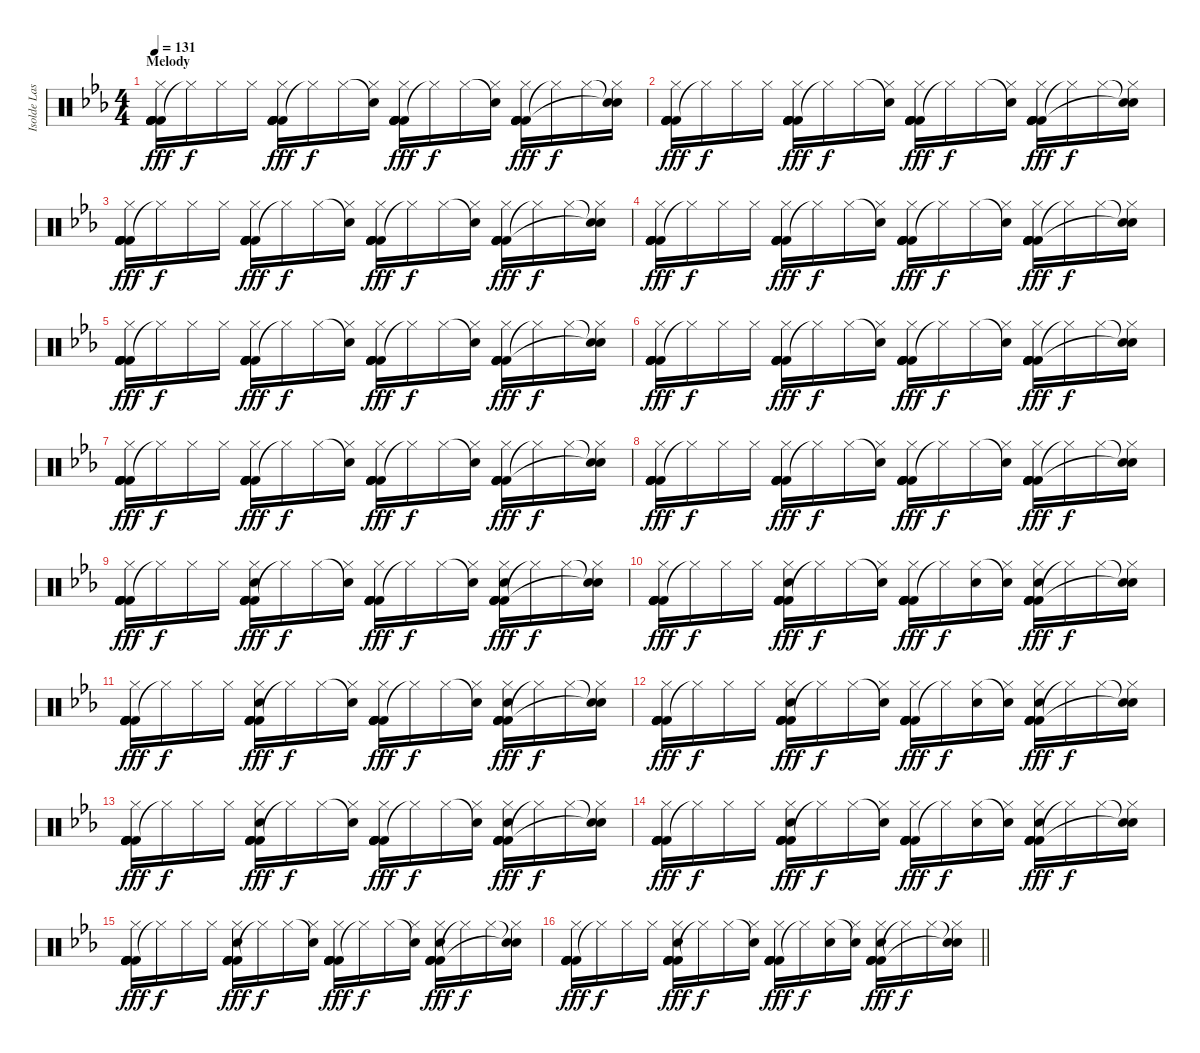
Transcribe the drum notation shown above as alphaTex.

\track ("Isolde Lasoen (Percussion)" "Isolde Las") {instrument percussion}
\staff {score}
\articulation defaults
\ts (4 4)
\section ("" "Melody")
\tempo 131
\clef neutral
\ks cminor
("Kick (hit) 2" "Kick (hit) 2" "Kick (hit) 2" "Kick (hit) 2" "Hi-Hat (closed)" "Kick (hit) 2").16{dy fff} "Hi-Hat (closed)"{t}.16{dy f} "Hi-Hat (closed)".16 "Hi-Hat (closed)".16 ("Kick (hit) 2" "Kick (hit) 2" "Kick (hit) 2" "Kick (hit) 2" "Hi-Hat (closed)" "Kick (hit) 2").16{dy fff} "Hi-Hat (closed)"{t}.16{dy f} "Hi-Hat (closed)".16 ("Snare (hit)"{t} "Hi-Hat (closed)").16 ("Kick (hit) 2" "Kick (hit) 2" "Kick (hit) 2" "Kick (hit) 2" "Hi-Hat (closed)" "Kick (hit) 2").16{dy fff} "Hi-Hat (closed)"{t}.16{dy f} "Hi-Hat (closed)".16 ("Snare (hit)"{t} "Hi-Hat (closed)").16 ("Kick (hit) 2" "Kick (hit) 2" "Kick (hit) 2" "Kick (hit) 2" "Hi-Hat (closed)" "Kick (hit) 2").16{dy fff} "Hi-Hat (closed)"{t}.16{dy f} "Hi-Hat (closed)".16 ("Snare (hit)"{t} "Hi-Hat (closed)" "Snare (hit)"{t}).16 |
("Kick (hit) 2" "Kick (hit) 2" "Kick (hit) 2" "Kick (hit) 2" "Hi-Hat (closed)" "Kick (hit) 2").16{dy fff} "Hi-Hat (closed)"{t}.16{dy f} "Hi-Hat (closed)".16 "Hi-Hat (closed)".16 ("Kick (hit) 2" "Kick (hit) 2" "Kick (hit) 2" "Kick (hit) 2" "Hi-Hat (closed)" "Kick (hit) 2").16{dy fff} "Hi-Hat (closed)"{t}.16{dy f} "Hi-Hat (closed)".16 ("Snare (hit)"{t} "Hi-Hat (closed)").16 ("Kick (hit) 2" "Kick (hit) 2" "Kick (hit) 2" "Kick (hit) 2" "Hi-Hat (closed)" "Kick (hit) 2").16{dy fff} "Hi-Hat (closed)"{t}.16{dy f} "Hi-Hat (closed)".16 ("Snare (hit)"{t} "Hi-Hat (closed)").16 ("Kick (hit) 2" "Kick (hit) 2" "Kick (hit) 2" "Kick (hit) 2" "Hi-Hat (closed)" "Kick (hit) 2").16{dy fff} "Hi-Hat (closed)"{t}.16{dy f} "Hi-Hat (closed)".16 ("Snare (hit)"{t} "Hi-Hat (closed)" "Snare (hit)"{t}).16 |
("Kick (hit) 2" "Kick (hit) 2" "Kick (hit) 2" "Kick (hit) 2" "Hi-Hat (closed)" "Kick (hit) 2").16{dy fff} "Hi-Hat (closed)"{t}.16{dy f} "Hi-Hat (closed)".16 "Hi-Hat (closed)".16 ("Kick (hit) 2" "Kick (hit) 2" "Kick (hit) 2" "Kick (hit) 2" "Hi-Hat (closed)" "Kick (hit) 2").16{dy fff} "Hi-Hat (closed)"{t}.16{dy f} "Hi-Hat (closed)".16 ("Snare (hit)"{t} "Hi-Hat (closed)").16 ("Kick (hit) 2" "Kick (hit) 2" "Kick (hit) 2" "Kick (hit) 2" "Hi-Hat (closed)" "Kick (hit) 2").16{dy fff} "Hi-Hat (closed)"{t}.16{dy f} "Hi-Hat (closed)".16 ("Snare (hit)"{t} "Hi-Hat (closed)").16 ("Kick (hit) 2" "Kick (hit) 2" "Kick (hit) 2" "Kick (hit) 2" "Hi-Hat (closed)" "Kick (hit) 2").16{dy fff} "Hi-Hat (closed)"{t}.16{dy f} "Hi-Hat (closed)".16 ("Snare (hit)"{t} "Hi-Hat (closed)" "Snare (hit)"{t}).16 |
("Kick (hit) 2" "Kick (hit) 2" "Kick (hit) 2" "Kick (hit) 2" "Hi-Hat (closed)" "Kick (hit) 2").16{dy fff} "Hi-Hat (closed)"{t}.16{dy f} "Hi-Hat (closed)".16 "Hi-Hat (closed)".16 ("Kick (hit) 2" "Kick (hit) 2" "Kick (hit) 2" "Kick (hit) 2" "Hi-Hat (closed)" "Kick (hit) 2").16{dy fff} "Hi-Hat (closed)"{t}.16{dy f} "Hi-Hat (closed)".16 ("Snare (hit)"{t} "Hi-Hat (closed)").16 ("Kick (hit) 2" "Kick (hit) 2" "Kick (hit) 2" "Kick (hit) 2" "Hi-Hat (closed)" "Kick (hit) 2").16{dy fff} "Hi-Hat (closed)"{t}.16{dy f} "Hi-Hat (closed)".16 ("Snare (hit)"{t} "Hi-Hat (closed)").16 ("Kick (hit) 2" "Kick (hit) 2" "Kick (hit) 2" "Kick (hit) 2" "Hi-Hat (closed)" "Kick (hit) 2").16{dy fff} "Hi-Hat (closed)"{t}.16{dy f} "Hi-Hat (closed)".16 ("Snare (hit)"{t} "Hi-Hat (closed)" "Snare (hit)"{t}).16 |
("Kick (hit) 2" "Kick (hit) 2" "Kick (hit) 2" "Kick (hit) 2" "Hi-Hat (closed)" "Kick (hit) 2").16{dy fff} "Hi-Hat (closed)"{t}.16{dy f} "Hi-Hat (closed)".16 "Hi-Hat (closed)".16 ("Kick (hit) 2" "Kick (hit) 2" "Kick (hit) 2" "Kick (hit) 2" "Hi-Hat (closed)" "Kick (hit) 2").16{dy fff} "Hi-Hat (closed)"{t}.16{dy f} "Hi-Hat (closed)".16 ("Snare (hit)"{t} "Hi-Hat (closed)").16 ("Kick (hit) 2" "Kick (hit) 2" "Kick (hit) 2" "Kick (hit) 2" "Hi-Hat (closed)" "Kick (hit) 2").16{dy fff} "Hi-Hat (closed)"{t}.16{dy f} "Hi-Hat (closed)".16 ("Snare (hit)"{t} "Hi-Hat (closed)").16 ("Kick (hit) 2" "Kick (hit) 2" "Kick (hit) 2" "Kick (hit) 2" "Hi-Hat (closed)" "Kick (hit) 2").16{dy fff} "Hi-Hat (closed)"{t}.16{dy f} "Hi-Hat (closed)".16 ("Snare (hit)"{t} "Hi-Hat (closed)" "Snare (hit)"{t}).16 |
("Kick (hit) 2" "Kick (hit) 2" "Kick (hit) 2" "Kick (hit) 2" "Hi-Hat (closed)" "Kick (hit) 2").16{dy fff} "Hi-Hat (closed)"{t}.16{dy f} "Hi-Hat (closed)".16 "Hi-Hat (closed)".16 ("Kick (hit) 2" "Kick (hit) 2" "Kick (hit) 2" "Kick (hit) 2" "Hi-Hat (closed)" "Kick (hit) 2").16{dy fff} "Hi-Hat (closed)"{t}.16{dy f} "Hi-Hat (closed)".16 ("Snare (hit)"{t} "Hi-Hat (closed)").16 ("Kick (hit) 2" "Kick (hit) 2" "Kick (hit) 2" "Kick (hit) 2" "Hi-Hat (closed)" "Kick (hit) 2").16{dy fff} "Hi-Hat (closed)"{t}.16{dy f} "Hi-Hat (closed)".16 ("Snare (hit)"{t} "Hi-Hat (closed)").16 ("Kick (hit) 2" "Kick (hit) 2" "Kick (hit) 2" "Kick (hit) 2" "Hi-Hat (closed)" "Kick (hit) 2").16{dy fff} "Hi-Hat (closed)"{t}.16{dy f} "Hi-Hat (closed)".16 ("Snare (hit)"{t} "Hi-Hat (closed)" "Snare (hit)"{t}).16 |
("Kick (hit) 2" "Kick (hit) 2" "Kick (hit) 2" "Kick (hit) 2" "Hi-Hat (closed)" "Kick (hit) 2").16{dy fff} "Hi-Hat (closed)"{t}.16{dy f} "Hi-Hat (closed)".16 "Hi-Hat (closed)".16 ("Kick (hit) 2" "Kick (hit) 2" "Kick (hit) 2" "Kick (hit) 2" "Hi-Hat (closed)" "Kick (hit) 2").16{dy fff} "Hi-Hat (closed)"{t}.16{dy f} "Hi-Hat (closed)".16 ("Snare (hit)"{t} "Hi-Hat (closed)").16 ("Kick (hit) 2" "Kick (hit) 2" "Kick (hit) 2" "Kick (hit) 2" "Hi-Hat (closed)" "Kick (hit) 2").16{dy fff} "Hi-Hat (closed)"{t}.16{dy f} "Hi-Hat (closed)".16 ("Snare (hit)"{t} "Hi-Hat (closed)").16 ("Kick (hit) 2" "Kick (hit) 2" "Kick (hit) 2" "Kick (hit) 2" "Hi-Hat (closed)" "Kick (hit) 2").16{dy fff} "Hi-Hat (closed)"{t}.16{dy f} "Hi-Hat (closed)".16 ("Snare (hit)"{t} "Hi-Hat (closed)" "Snare (hit)"{t}).16 |
("Kick (hit) 2" "Kick (hit) 2" "Kick (hit) 2" "Kick (hit) 2" "Hi-Hat (closed)" "Kick (hit) 2").16{dy fff} "Hi-Hat (closed)"{t}.16{dy f} "Hi-Hat (closed)".16 "Hi-Hat (closed)".16 ("Kick (hit) 2" "Kick (hit) 2" "Kick (hit) 2" "Kick (hit) 2" "Hi-Hat (closed)" "Kick (hit) 2").16{dy fff} "Hi-Hat (closed)"{t}.16{dy f} "Hi-Hat (closed)".16 ("Snare (hit)"{t} "Hi-Hat (closed)").16 ("Kick (hit) 2" "Kick (hit) 2" "Kick (hit) 2" "Kick (hit) 2" "Hi-Hat (closed)" "Kick (hit) 2").16{dy fff} "Hi-Hat (closed)"{t}.16{dy f} "Hi-Hat (closed)".16 ("Snare (hit)"{t} "Hi-Hat (closed)").16 ("Kick (hit) 2" "Kick (hit) 2" "Kick (hit) 2" "Kick (hit) 2" "Hi-Hat (closed)" "Kick (hit) 2").16{dy fff} "Hi-Hat (closed)"{t}.16{dy f} "Hi-Hat (closed)".16 ("Snare (hit)"{t} "Hi-Hat (closed)" "Snare (hit)"{t}).16 |
("Kick (hit) 2" "Kick (hit) 2" "Kick (hit) 2" "Kick (hit) 2" "Hi-Hat (closed)" "Kick (hit) 2").16{dy fff} "Hi-Hat (closed)"{t}.16{dy f} "Hi-Hat (closed)".16 "Hi-Hat (closed)".16 ("Kick (hit) 2" "Kick (hit) 2" "Kick (hit) 2" "Kick (hit) 2" "Hi-Hat (closed)" "Hand Clap (hit)").16{dy fff} "Hi-Hat (closed)"{t}.16{dy f} "Hi-Hat (closed)".16 ("Snare (hit)"{t} "Hi-Hat (closed)").16 ("Kick (hit) 2" "Kick (hit) 2" "Kick (hit) 2" "Kick (hit) 2" "Hi-Hat (closed)" "Kick (hit) 2").16{dy fff} "Hi-Hat (closed)"{t}.16{dy f} "Hi-Hat (closed)".16 ("Snare (hit)"{t} "Hi-Hat (closed)").16 ("Kick (hit) 2" "Kick (hit) 2" "Kick (hit) 2" "Kick (hit) 2" "Hi-Hat (closed)" "Hand Clap (hit)").16{dy fff} "Hi-Hat (closed)"{t}.16{dy f} "Hi-Hat (closed)".16 ("Snare (hit)"{t} "Hi-Hat (closed)" "Snare (hit)"{t}).16 |
("Kick (hit) 2" "Kick (hit) 2" "Kick (hit) 2" "Kick (hit) 2" "Hi-Hat (closed)" "Kick (hit) 2").16{dy fff} "Hi-Hat (closed)"{t}.16{dy f} "Hi-Hat (closed)".16 "Hi-Hat (closed)".16 ("Kick (hit) 2" "Kick (hit) 2" "Kick (hit) 2" "Kick (hit) 2" "Hi-Hat (closed)" "Hand Clap (hit)").16{dy fff} "Hi-Hat (closed)"{t}.16{dy f} "Hi-Hat (closed)".16 ("Snare (hit)"{t} "Hi-Hat (closed)").16 ("Kick (hit) 2" "Kick (hit) 2" "Kick (hit) 2" "Kick (hit) 2" "Hi-Hat (closed)" "Kick (hit) 2").16{dy fff} "Hi-Hat (closed)"{t}.16{dy f} ("Hi-Hat (closed)" "Hand Clap (hit)").16 ("Snare (hit)"{t} "Hi-Hat (closed)").16 ("Kick (hit) 2" "Kick (hit) 2" "Kick (hit) 2" "Kick (hit) 2" "Hi-Hat (closed)" "Hand Clap (hit)").16{dy fff} "Hi-Hat (closed)"{t}.16{dy f} "Hi-Hat (closed)".16 ("Snare (hit)"{t} "Hi-Hat (closed)" "Snare (hit)"{t}).16 |
("Kick (hit) 2" "Kick (hit) 2" "Kick (hit) 2" "Kick (hit) 2" "Hi-Hat (closed)" "Kick (hit) 2").16{dy fff} "Hi-Hat (closed)"{t}.16{dy f} "Hi-Hat (closed)".16 "Hi-Hat (closed)".16 ("Kick (hit) 2" "Kick (hit) 2" "Kick (hit) 2" "Kick (hit) 2" "Hi-Hat (closed)" "Hand Clap (hit)").16{dy fff} "Hi-Hat (closed)"{t}.16{dy f} "Hi-Hat (closed)".16 ("Snare (hit)"{t} "Hi-Hat (closed)").16 ("Kick (hit) 2" "Kick (hit) 2" "Kick (hit) 2" "Kick (hit) 2" "Hi-Hat (closed)" "Kick (hit) 2").16{dy fff} "Hi-Hat (closed)"{t}.16{dy f} "Hi-Hat (closed)".16 ("Snare (hit)"{t} "Hi-Hat (closed)").16 ("Kick (hit) 2" "Kick (hit) 2" "Kick (hit) 2" "Kick (hit) 2" "Hi-Hat (closed)" "Hand Clap (hit)").16{dy fff} "Hi-Hat (closed)"{t}.16{dy f} "Hi-Hat (closed)".16 ("Snare (hit)"{t} "Hi-Hat (closed)" "Snare (hit)"{t}).16 |
("Kick (hit) 2" "Kick (hit) 2" "Kick (hit) 2" "Kick (hit) 2" "Hi-Hat (closed)" "Kick (hit) 2").16{dy fff} "Hi-Hat (closed)"{t}.16{dy f} "Hi-Hat (closed)".16 "Hi-Hat (closed)".16 ("Kick (hit) 2" "Kick (hit) 2" "Kick (hit) 2" "Kick (hit) 2" "Hi-Hat (closed)" "Hand Clap (hit)").16{dy fff} "Hi-Hat (closed)"{t}.16{dy f} "Hi-Hat (closed)".16 ("Snare (hit)"{t} "Hi-Hat (closed)").16 ("Kick (hit) 2" "Kick (hit) 2" "Kick (hit) 2" "Kick (hit) 2" "Hi-Hat (closed)" "Kick (hit) 2").16{dy fff} "Hi-Hat (closed)"{t}.16{dy f} ("Hi-Hat (closed)" "Hand Clap (hit)").16 ("Snare (hit)"{t} "Hi-Hat (closed)").16 ("Kick (hit) 2" "Kick (hit) 2" "Kick (hit) 2" "Kick (hit) 2" "Hi-Hat (closed)" "Hand Clap (hit)").16{dy fff} "Hi-Hat (closed)"{t}.16{dy f} "Hi-Hat (closed)".16 ("Snare (hit)"{t} "Hi-Hat (closed)" "Snare (hit)"{t}).16 |
("Kick (hit) 2" "Kick (hit) 2" "Kick (hit) 2" "Kick (hit) 2" "Hi-Hat (closed)" "Kick (hit) 2").16{dy fff} "Hi-Hat (closed)"{t}.16{dy f} "Hi-Hat (closed)".16 "Hi-Hat (closed)".16 ("Kick (hit) 2" "Kick (hit) 2" "Kick (hit) 2" "Kick (hit) 2" "Hi-Hat (closed)" "Hand Clap (hit)").16{dy fff} "Hi-Hat (closed)"{t}.16{dy f} "Hi-Hat (closed)".16 ("Snare (hit)"{t} "Hi-Hat (closed)").16 ("Kick (hit) 2" "Kick (hit) 2" "Kick (hit) 2" "Kick (hit) 2" "Hi-Hat (closed)" "Kick (hit) 2").16{dy fff} "Hi-Hat (closed)"{t}.16{dy f} "Hi-Hat (closed)".16 ("Snare (hit)"{t} "Hi-Hat (closed)").16 ("Kick (hit) 2" "Kick (hit) 2" "Kick (hit) 2" "Kick (hit) 2" "Hi-Hat (closed)" "Hand Clap (hit)").16{dy fff} "Hi-Hat (closed)"{t}.16{dy f} "Hi-Hat (closed)".16 ("Snare (hit)"{t} "Hi-Hat (closed)" "Snare (hit)"{t}).16 |
("Kick (hit) 2" "Kick (hit) 2" "Kick (hit) 2" "Kick (hit) 2" "Hi-Hat (closed)" "Kick (hit) 2").16{dy fff} "Hi-Hat (closed)"{t}.16{dy f} "Hi-Hat (closed)".16 "Hi-Hat (closed)".16 ("Kick (hit) 2" "Kick (hit) 2" "Kick (hit) 2" "Kick (hit) 2" "Hi-Hat (closed)" "Hand Clap (hit)").16{dy fff} "Hi-Hat (closed)"{t}.16{dy f} "Hi-Hat (closed)".16 ("Snare (hit)"{t} "Hi-Hat (closed)").16 ("Kick (hit) 2" "Kick (hit) 2" "Kick (hit) 2" "Kick (hit) 2" "Hi-Hat (closed)" "Kick (hit) 2").16{dy fff} "Hi-Hat (closed)"{t}.16{dy f} ("Hi-Hat (closed)" "Hand Clap (hit)").16 ("Snare (hit)"{t} "Hi-Hat (closed)").16 ("Kick (hit) 2" "Kick (hit) 2" "Kick (hit) 2" "Kick (hit) 2" "Hi-Hat (closed)" "Hand Clap (hit)").16{dy fff} "Hi-Hat (closed)"{t}.16{dy f} "Hi-Hat (closed)".16 ("Snare (hit)"{t} "Hi-Hat (closed)" "Snare (hit)"{t}).16 |
("Kick (hit) 2" "Kick (hit) 2" "Kick (hit) 2" "Kick (hit) 2" "Hi-Hat (closed)" "Kick (hit) 2").16{dy fff} "Hi-Hat (closed)"{t}.16{dy f} "Hi-Hat (closed)".16 "Hi-Hat (closed)".16 ("Kick (hit) 2" "Kick (hit) 2" "Kick (hit) 2" "Kick (hit) 2" "Hi-Hat (closed)" "Hand Clap (hit)").16{dy fff} "Hi-Hat (closed)"{t}.16{dy f} "Hi-Hat (closed)".16 ("Snare (hit)"{t} "Hi-Hat (closed)").16 ("Kick (hit) 2" "Kick (hit) 2" "Kick (hit) 2" "Kick (hit) 2" "Hi-Hat (closed)" "Kick (hit) 2").16{dy fff} "Hi-Hat (closed)"{t}.16{dy f} "Hi-Hat (closed)".16 ("Snare (hit)"{t} "Hi-Hat (closed)").16 ("Kick (hit) 2" "Kick (hit) 2" "Kick (hit) 2" "Kick (hit) 2" "Hi-Hat (closed)" "Hand Clap (hit)").16{dy fff} "Hi-Hat (closed)"{t}.16{dy f} "Hi-Hat (closed)".16 ("Snare (hit)"{t} "Hi-Hat (closed)" "Snare (hit)"{t}).16 |
\barLineRight lightlight
("Kick (hit) 2" "Kick (hit) 2" "Kick (hit) 2" "Kick (hit) 2" "Hi-Hat (closed)" "Kick (hit) 2").16{dy fff} "Hi-Hat (closed)"{t}.16{dy f} "Hi-Hat (closed)".16 "Hi-Hat (closed)".16 ("Kick (hit) 2" "Kick (hit) 2" "Kick (hit) 2" "Kick (hit) 2" "Hi-Hat (closed)" "Hand Clap (hit)").16{dy fff} "Hi-Hat (closed)"{t}.16{dy f} "Hi-Hat (closed)".16 ("Snare (hit)"{t} "Hi-Hat (closed)").16 ("Kick (hit) 2" "Kick (hit) 2" "Kick (hit) 2" "Kick (hit) 2" "Hi-Hat (closed)" "Kick (hit) 2").16{dy fff} "Hi-Hat (closed)"{t}.16{dy f} ("Hi-Hat (closed)" "Hand Clap (hit)").16 ("Snare (hit)"{t} "Hi-Hat (closed)").16 ("Kick (hit) 2" "Kick (hit) 2" "Kick (hit) 2" "Kick (hit) 2" "Hi-Hat (closed)" "Hand Clap (hit)").16{dy fff} "Hi-Hat (closed)"{t}.16{dy f} "Hi-Hat (closed)".16 ("Snare (hit)"{t} "Hi-Hat (closed)" "Snare (hit)"{t}).16
